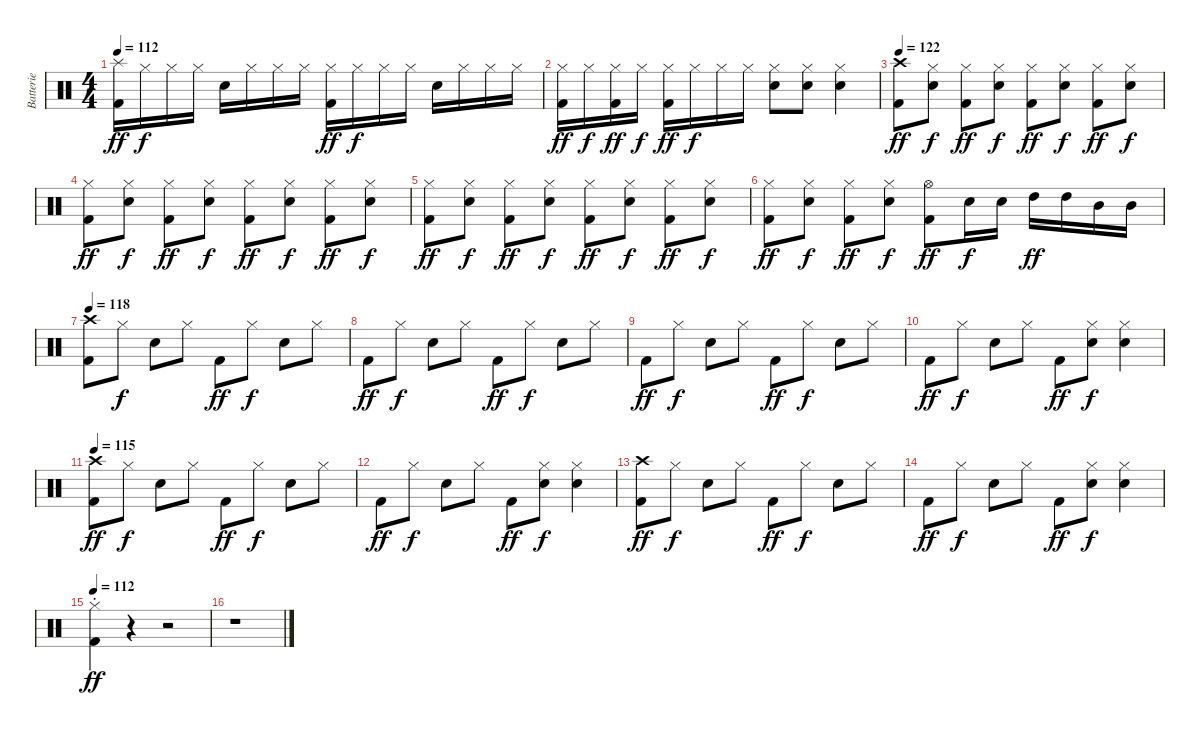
\track ("Batterie" "Batterie") {instrument percussion}
\staff {score}
\articulation defaults
\ts (4 4)
\tempo 112
\clef neutral
\ks c
("Splash (hit)" "Kick (hit) 2").16{dy ff} "Hi-Hat (closed)".16{dy f} "Hi-Hat (closed)".16 "Hi-Hat (closed)".16 "Snare (hit) 2".16 "Hi-Hat (closed)".16 "Hi-Hat (closed)".16 "Hi-Hat (closed)".16 ("Hi-Hat (closed)" "Kick (hit) 2").16{dy ff} "Hi-Hat (closed)".16{dy f} "Hi-Hat (closed)".16 "Hi-Hat (closed)".16 "Snare (hit) 2".16 "Hi-Hat (closed)".16 "Hi-Hat (closed)".16 "Hi-Hat (closed)".16 |
("Hi-Hat (closed)" "Kick (hit) 2").16{dy ff} "Hi-Hat (closed)".16{dy f} ("Hi-Hat (closed)" "Kick (hit) 2").16{dy ff} "Hi-Hat (closed)".16{dy f} ("Hi-Hat (closed)" "Kick (hit) 2").16{dy ff} "Hi-Hat (closed)".16{dy f} "Hi-Hat (closed)".16 "Hi-Hat (closed)".16 ("Hi-Hat (closed)" "Snare (hit) 2").8 ("Hi-Hat (closed)" "Snare (hit) 2").8 ("Hi-Hat (closed)" "Snare (hit) 2").4 |
\tempo 122
("Crash high (hit)" "Kick (hit) 2").8{dy ff} ("Hi-Hat (closed)" "Snare (hit) 2").8{dy f} ("Hi-Hat (closed)" "Kick (hit) 2").8{dy ff} ("Hi-Hat (closed)" "Snare (hit) 2").8{dy f} ("Hi-Hat (closed)" "Kick (hit) 2").8{dy ff} ("Hi-Hat (closed)" "Snare (hit) 2").8{dy f} ("Hi-Hat (closed)" "Kick (hit) 2").8{dy ff} ("Hi-Hat (closed)" "Snare (hit) 2").8{dy f} |
("Hi-Hat (closed)" "Kick (hit) 2").8{dy ff} ("Hi-Hat (closed)" "Snare (hit) 2").8{dy f} ("Hi-Hat (closed)" "Kick (hit) 2").8{dy ff} ("Hi-Hat (closed)" "Snare (hit) 2").8{dy f} ("Hi-Hat (closed)" "Kick (hit) 2").8{dy ff} ("Hi-Hat (closed)" "Snare (hit) 2").8{dy f} ("Hi-Hat (closed)" "Kick (hit) 2").8{dy ff} ("Hi-Hat (closed)" "Snare (hit) 2").8{dy f} |
("Hi-Hat (closed)" "Kick (hit) 2").8{dy ff} ("Hi-Hat (closed)" "Snare (hit) 2").8{dy f} ("Hi-Hat (closed)" "Kick (hit) 2").8{dy ff} ("Hi-Hat (closed)" "Snare (hit) 2").8{dy f} ("Hi-Hat (closed)" "Kick (hit) 2").8{dy ff} ("Hi-Hat (closed)" "Snare (hit) 2").8{dy f} ("Hi-Hat (closed)" "Kick (hit) 2").8{dy ff} ("Hi-Hat (closed)" "Snare (hit) 2").8{dy f} |
("Hi-Hat (closed)" "Kick (hit) 2").8{dy ff} ("Hi-Hat (closed)" "Snare (hit) 2").8{dy f} ("Hi-Hat (closed)" "Kick (hit) 2").8{dy ff} ("Hi-Hat (closed)" "Snare (hit) 2").8{dy f} ("Hi-Hat (open)" "Kick (hit) 2").8{dy ff} "Snare (hit) 2".16{dy f} "Snare (hit) 2".16 "High Tom (hit)".16{dy ff} "High Tom (hit)".16 "Mid Tom (hit)".16 "Mid Tom (hit)".16 |
\tempo 118
("Crash high (hit)" "Kick (hit) 2").8 "Hi-Hat (closed)".8{dy f} "Snare (hit) 2".8 "Hi-Hat (closed)".8 "Kick (hit) 2".8{dy ff} "Hi-Hat (closed)".8{dy f} "Snare (hit) 2".8 "Hi-Hat (closed)".8 |
"Kick (hit) 2".8{dy ff} "Hi-Hat (closed)".8{dy f} "Snare (hit) 2".8 "Hi-Hat (closed)".8 "Kick (hit) 2".8{dy ff} "Hi-Hat (closed)".8{dy f} "Snare (hit) 2".8 "Hi-Hat (closed)".8 |
"Kick (hit) 2".8{dy ff} "Hi-Hat (closed)".8{dy f} "Snare (hit) 2".8 "Hi-Hat (closed)".8 "Kick (hit) 2".8{dy ff} "Hi-Hat (closed)".8{dy f} "Snare (hit) 2".8 "Hi-Hat (closed)".8 |
"Kick (hit) 2".8{dy ff} "Hi-Hat (closed)".8{dy f} "Snare (hit) 2".8 "Hi-Hat (closed)".8 "Kick (hit) 2".8{dy ff} ("Hi-Hat (closed)" "Snare (hit) 2").8{dy f} ("Hi-Hat (closed)" "Snare (hit) 2").4 |
\tempo 115
("Crash high (hit)" "Kick (hit) 2").8{dy ff} "Hi-Hat (closed)".8{dy f} "Snare (hit) 2".8 "Hi-Hat (closed)".8 "Kick (hit) 2".8{dy ff} "Hi-Hat (closed)".8{dy f} "Snare (hit) 2".8 "Hi-Hat (closed)".8 |
"Kick (hit) 2".8{dy ff} "Hi-Hat (closed)".8{dy f} "Snare (hit) 2".8 "Hi-Hat (closed)".8 "Kick (hit) 2".8{dy ff} ("Hi-Hat (closed)" "Snare (hit) 2").8{dy f} ("Hi-Hat (closed)" "Snare (hit) 2").4 |
("Crash high (hit)" "Kick (hit) 2").8{dy ff} "Hi-Hat (closed)".8{dy f} "Snare (hit) 2".8 "Hi-Hat (closed)".8 "Kick (hit) 2".8{dy ff} "Hi-Hat (closed)".8{dy f} "Snare (hit) 2".8 "Hi-Hat (closed)".8 |
"Kick (hit) 2".8{dy ff} "Hi-Hat (closed)".8{dy f} "Snare (hit) 2".8 "Hi-Hat (closed)".8 "Kick (hit) 2".8{dy ff} ("Hi-Hat (closed)" "Snare (hit) 2").8{dy f} ("Hi-Hat (closed)" "Snare (hit) 2").4 |
\tempo 112
("Hi-Hat (closed)"{st} "Kick (hit) 2"{st}).4{dy ff} r.4 r.2 |
r.1
